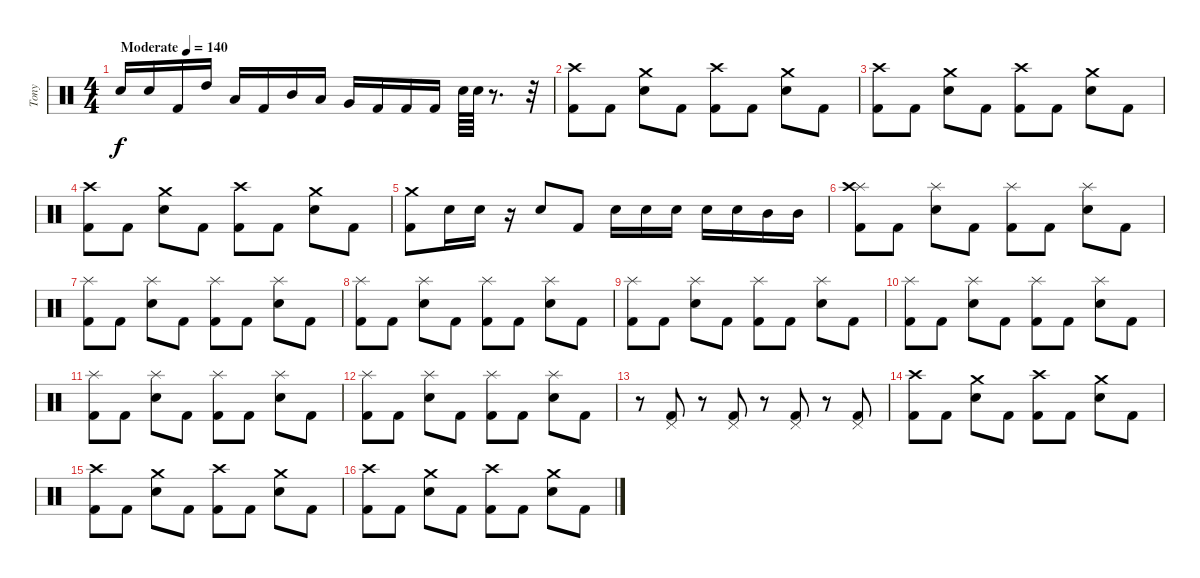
\track ("Tony" "Tony") {instrument percussion}
\staff {score}
\articulation defaults
\ts (4 4)
\tempo (140 "Moderate")
\clef neutral
\ks c "Electric Snare (hit)".16{dy f} "Electric Snare (hit)".16 "Kick (hit) 2".16 "High Tom (hit)".16 "Low Floor Tom (hit)".16 "Kick (hit) 2".16 "Mid Tom (hit)".16 "Low Floor Tom (hit)".16 "Very Low Tom (hit)".16 "Kick (hit) 2".16 "Kick (hit) 2".16 "Kick (hit) 2".16 "Electric Snare (hit)".64 "Electric Snare (hit)".64
r.8{d} r.32 |
("Kick (hit) 2" "Crash high (hit)").8 "Kick (hit) 2".8 ("Electric Snare (hit)" "Crash medium (hit)").8 "Kick (hit) 2".8 ("Kick (hit) 2" "Crash high (hit)").8 "Kick (hit) 2".8 ("Electric Snare (hit)" "Crash medium (hit)").8 "Kick (hit) 2".8 |
("Kick (hit) 2" "Crash high (hit)").8 "Kick (hit) 2".8 ("Electric Snare (hit)" "Crash medium (hit)").8 "Kick (hit) 2".8 ("Kick (hit) 2" "Crash high (hit)").8 "Kick (hit) 2".8 ("Electric Snare (hit)" "Crash medium (hit)").8 "Kick (hit) 2".8 |
("Kick (hit) 2" "Crash high (hit)").8 "Kick (hit) 2".8 ("Electric Snare (hit)" "Crash medium (hit)").8 "Kick (hit) 2".8 ("Kick (hit) 2" "Crash high (hit)").8 "Kick (hit) 2".8 ("Electric Snare (hit)" "Crash medium (hit)").8 "Kick (hit) 2".8 |
("Crash medium (hit)" "Kick (hit) 2").8 "Electric Snare (hit)".16 "Electric Snare (hit)".16 r.16 "Electric Snare (hit)".8 "Kick (hit) 2".8 "Electric Snare (hit)".16 "Electric Snare (hit)".16 "Electric Snare (hit)".16 "Electric Snare (hit)".16 "Electric Snare (hit)".16 "Mid Tom (hit)".16 "Mid Tom (hit)".16 |
("Kick (hit) 2" "Splash (hit)" "Crash high (hit)").8 "Kick (hit) 2".8 ("Electric Snare (hit)" "Splash (hit)").8 "Kick (hit) 2".8 ("Kick (hit) 2" "Splash (hit)").8 "Kick (hit) 2".8 ("Electric Snare (hit)" "Splash (hit)").8 "Kick (hit) 2".8 |
("Kick (hit) 2" "Splash (hit)").8 "Kick (hit) 2".8 ("Electric Snare (hit)" "Splash (hit)").8 "Kick (hit) 2".8 ("Kick (hit) 2" "Splash (hit)").8 "Kick (hit) 2".8 ("Electric Snare (hit)" "Splash (hit)").8 "Kick (hit) 2".8 |
("Kick (hit) 2" "Splash (hit)").8 "Kick (hit) 2".8 ("Electric Snare (hit)" "Splash (hit)").8 "Kick (hit) 2".8 ("Kick (hit) 2" "Splash (hit)").8 "Kick (hit) 2".8 ("Electric Snare (hit)" "Splash (hit)").8 "Kick (hit) 2".8 |
("Kick (hit) 2" "Splash (hit)").8 "Kick (hit) 2".8 ("Electric Snare (hit)" "Splash (hit)").8 "Kick (hit) 2".8 ("Kick (hit) 2" "Splash (hit)").8 "Kick (hit) 2".8 ("Electric Snare (hit)" "Splash (hit)").8 "Kick (hit) 2".8 |
("Kick (hit) 2" "Splash (hit)").8 "Kick (hit) 2".8 ("Electric Snare (hit)" "Splash (hit)").8 "Kick (hit) 2".8 ("Kick (hit) 2" "Splash (hit)").8 "Kick (hit) 2".8 ("Electric Snare (hit)" "Splash (hit)").8 "Kick (hit) 2".8 |
("Kick (hit) 2" "Splash (hit)").8 "Kick (hit) 2".8 ("Electric Snare (hit)" "Splash (hit)").8 "Kick (hit) 2".8 ("Kick (hit) 2" "Splash (hit)").8 "Kick (hit) 2".8 ("Electric Snare (hit)" "Splash (hit)").8 "Kick (hit) 2".8 |
("Kick (hit) 2" "Splash (hit)").8 "Kick (hit) 2".8 ("Electric Snare (hit)" "Splash (hit)").8 "Kick (hit) 2".8 ("Kick (hit) 2" "Splash (hit)").8 "Kick (hit) 2".8 ("Electric Snare (hit)" "Splash (hit)").8 "Kick (hit) 2".8 |
r.8 ("Kick (hit) 2" "Pedal Hi-Hat (hit)").8 r.8 ("Kick (hit) 2" "Pedal Hi-Hat (hit)").8 r.8 ("Kick (hit) 2" "Pedal Hi-Hat (hit)").8 r.8 ("Kick (hit) 2" "Pedal Hi-Hat (hit)").8 |
("Kick (hit) 2" "Crash high (hit)").8 "Kick (hit) 2".8 ("Electric Snare (hit)" "Crash medium (hit)").8 "Kick (hit) 2".8 ("Kick (hit) 2" "Crash high (hit)").8 "Kick (hit) 2".8 ("Electric Snare (hit)" "Crash medium (hit)").8 "Kick (hit) 2".8 |
("Kick (hit) 2" "Crash high (hit)").8 "Kick (hit) 2".8 ("Electric Snare (hit)" "Crash medium (hit)").8 "Kick (hit) 2".8 ("Kick (hit) 2" "Crash high (hit)").8 "Kick (hit) 2".8 ("Electric Snare (hit)" "Crash medium (hit)").8 "Kick (hit) 2".8 |
("Kick (hit) 2" "Crash high (hit)").8 "Kick (hit) 2".8 ("Electric Snare (hit)" "Crash medium (hit)").8 "Kick (hit) 2".8 ("Kick (hit) 2" "Crash high (hit)").8 "Kick (hit) 2".8 ("Electric Snare (hit)" "Crash medium (hit)").8 "Kick (hit) 2".8
